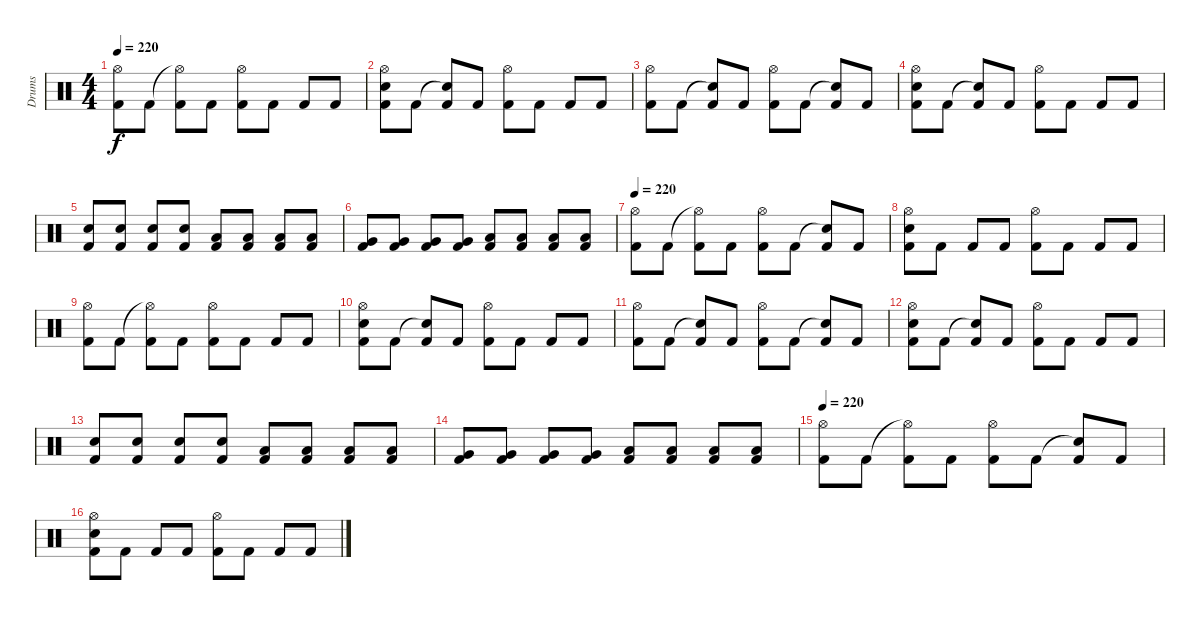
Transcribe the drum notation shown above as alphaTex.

\track ("Drums" "Drums") {instrument percussion}
\staff {score}
\articulation defaults
\ts (4 4)
\tempo 220
\clef neutral
\ks c
("Hi-Hat (open)" "Kick (hit) 2").8{dy f} "Kick (hit) 2".8 ("Hi-Hat (open)"{t} "Kick (hit) 2").8 "Kick (hit) 2".8 ("Hi-Hat (open)" "Kick (hit) 2").8 "Kick (hit) 2".8 "Kick (hit) 2".8 "Kick (hit) 2".8 |
("Hi-Hat (open)" "Snare (hit) 2" "Kick (hit) 2").8 "Kick (hit) 2".8 ("Snare (hit)"{t} "Kick (hit) 2").8 "Kick (hit) 2".8 ("Hi-Hat (open)" "Kick (hit) 2").8 "Kick (hit) 2".8 "Kick (hit) 2".8 "Kick (hit) 2".8 |
("Hi-Hat (open)" "Kick (hit) 2").8 "Kick (hit) 2".8 ("Snare (hit)"{t} "Kick (hit) 2").8 "Kick (hit) 2".8 ("Hi-Hat (open)" "Kick (hit) 2").8 "Kick (hit) 2".8 ("Snare (hit)"{t} "Kick (hit) 2").8 "Kick (hit) 2".8 |
("Hi-Hat (open)" "Snare (hit) 2" "Kick (hit) 2").8 "Kick (hit) 2".8 ("Snare (hit)"{t} "Kick (hit) 2").8 "Kick (hit) 2".8 ("Hi-Hat (open)" "Kick (hit) 2").8 "Kick (hit) 2".8 "Kick (hit) 2".8 "Kick (hit) 2".8 |
("Snare (hit) 2" "Kick (hit) 2").8 ("Snare (hit) 2" "Kick (hit) 2").8 ("Snare (hit) 2" "Kick (hit) 2").8 ("Snare (hit) 2" "Kick (hit) 2").8 ("Low Tom (hit)" "Kick (hit) 2").8 ("Low Tom (hit)" "Kick (hit) 2").8 ("Low Tom (hit)" "Kick (hit) 2").8 ("Low Tom (hit)" "Kick (hit) 2").8 |
("Very Low Tom (hit)" "Kick (hit) 2").8 ("Very Low Tom (hit)" "Kick (hit) 2").8 ("Very Low Tom (hit)" "Kick (hit) 2").8 ("Very Low Tom (hit)" "Kick (hit) 2").8 ("Low Floor Tom (hit)" "Kick (hit) 2").8 ("Low Floor Tom (hit)" "Kick (hit) 2").8 ("Low Floor Tom (hit)" "Kick (hit) 2").8 ("Low Floor Tom (hit)" "Kick (hit) 2").8 |
\tempo 220
("Hi-Hat (open)" "Kick (hit) 2").8 "Kick (hit) 2".8 ("Hi-Hat (open)"{t} "Kick (hit) 2").8 "Kick (hit) 2".8 ("Hi-Hat (open)" "Kick (hit) 2").8 "Kick (hit) 2".8 ("Snare (hit)"{t} "Kick (hit) 2").8 "Kick (hit) 2".8 |
("Hi-Hat (open)" "Snare (hit) 2" "Kick (hit) 2").8 "Kick (hit) 2".8 "Kick (hit) 2".8 "Kick (hit) 2".8 ("Hi-Hat (open)" "Kick (hit) 2").8 "Kick (hit) 2".8 "Kick (hit) 2".8 "Kick (hit) 2".8 |
("Hi-Hat (open)" "Kick (hit) 2").8 "Kick (hit) 2".8 ("Hi-Hat (open)"{t} "Kick (hit) 2").8 "Kick (hit) 2".8 ("Hi-Hat (open)" "Kick (hit) 2").8 "Kick (hit) 2".8 "Kick (hit) 2".8 "Kick (hit) 2".8 |
("Hi-Hat (open)" "Snare (hit) 2" "Kick (hit) 2").8 "Kick (hit) 2".8 ("Snare (hit)"{t} "Kick (hit) 2").8 "Kick (hit) 2".8 ("Hi-Hat (open)" "Kick (hit) 2").8 "Kick (hit) 2".8 "Kick (hit) 2".8 "Kick (hit) 2".8 |
("Hi-Hat (open)" "Kick (hit) 2").8 "Kick (hit) 2".8 ("Snare (hit)"{t} "Kick (hit) 2").8 "Kick (hit) 2".8 ("Hi-Hat (open)" "Kick (hit) 2").8 "Kick (hit) 2".8 ("Snare (hit)"{t} "Kick (hit) 2").8 "Kick (hit) 2".8 |
("Hi-Hat (open)" "Snare (hit) 2" "Kick (hit) 2").8 "Kick (hit) 2".8 ("Snare (hit)"{t} "Kick (hit) 2").8 "Kick (hit) 2".8 ("Hi-Hat (open)" "Kick (hit) 2").8 "Kick (hit) 2".8 "Kick (hit) 2".8 "Kick (hit) 2".8 |
("Snare (hit) 2" "Kick (hit) 2").8 ("Snare (hit) 2" "Kick (hit) 2").8 ("Snare (hit) 2" "Kick (hit) 2").8 ("Snare (hit) 2" "Kick (hit) 2").8 ("Low Tom (hit)" "Kick (hit) 2").8 ("Low Tom (hit)" "Kick (hit) 2").8 ("Low Tom (hit)" "Kick (hit) 2").8 ("Low Tom (hit)" "Kick (hit) 2").8 |
("Very Low Tom (hit)" "Kick (hit) 2").8 ("Very Low Tom (hit)" "Kick (hit) 2").8 ("Very Low Tom (hit)" "Kick (hit) 2").8 ("Very Low Tom (hit)" "Kick (hit) 2").8 ("Low Floor Tom (hit)" "Kick (hit) 2").8 ("Low Floor Tom (hit)" "Kick (hit) 2").8 ("Low Floor Tom (hit)" "Kick (hit) 2").8 ("Low Floor Tom (hit)" "Kick (hit) 2").8 |
\tempo 220
("Hi-Hat (open)" "Kick (hit) 2").8 "Kick (hit) 2".8 ("Hi-Hat (open)"{t} "Kick (hit) 2").8 "Kick (hit) 2".8 ("Hi-Hat (open)" "Kick (hit) 2").8 "Kick (hit) 2".8 ("Snare (hit)"{t} "Kick (hit) 2").8 "Kick (hit) 2".8 |
("Hi-Hat (open)" "Snare (hit) 2" "Kick (hit) 2").8 "Kick (hit) 2".8 "Kick (hit) 2".8 "Kick (hit) 2".8 ("Hi-Hat (open)" "Kick (hit) 2").8 "Kick (hit) 2".8 "Kick (hit) 2".8 "Kick (hit) 2".8
